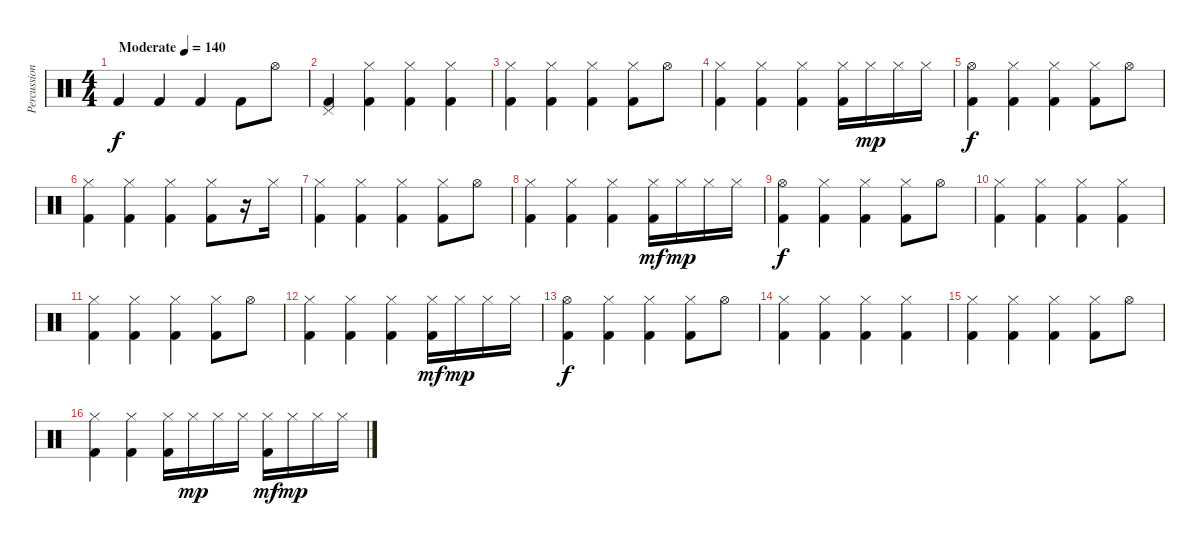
\track ("Percussions" "Percussion") {instrument percussion}
\staff {score}
\articulation defaults
\ts (4 4)
\tempo (140 "Moderate")
\clef neutral
\ks c "Kick (hit) 2".4{dy f} "Kick (hit) 2".4 "Kick (hit) 2".4 "Kick (hit) 2".8 "Hi-Hat (open)".8
|
("Pedal Hi-Hat (hit)" "Kick (hit) 2").4 ("Hi-Hat (closed)" "Kick (hit) 2").4 ("Hi-Hat (closed)" "Kick (hit) 2").4 ("Hi-Hat (closed)" "Kick (hit) 2").4 |
("Hi-Hat (closed)" "Kick (hit) 2").4 ("Hi-Hat (closed)" "Kick (hit) 2").4 ("Hi-Hat (closed)" "Kick (hit) 2").4 ("Hi-Hat (closed)" "Kick (hit) 2").8 "Hi-Hat (open)".8 |
("Hi-Hat (closed)" "Kick (hit) 2").4 ("Hi-Hat (closed)" "Kick (hit) 2").4 ("Hi-Hat (closed)" "Kick (hit) 2").4 ("Hi-Hat (closed)" "Kick (hit) 2").16 "Hi-Hat (closed)".16{dy mp} "Hi-Hat (closed)".16 "Hi-Hat (closed)".16 |
("Hi-Hat (open)" "Kick (hit) 2").4{dy f} ("Hi-Hat (closed)" "Kick (hit) 2").4 ("Hi-Hat (closed)" "Kick (hit) 2").4 ("Hi-Hat (closed)" "Kick (hit) 2").8 "Hi-Hat (open)".8 |
("Hi-Hat (closed)" "Kick (hit) 2").4 ("Hi-Hat (closed)" "Kick (hit) 2").4 ("Hi-Hat (closed)" "Kick (hit) 2").4 ("Hi-Hat (closed)" "Kick (hit) 2").8 r.16 "Hi-Hat (closed)".16 |
("Hi-Hat (closed)" "Kick (hit) 2").4 ("Hi-Hat (closed)" "Kick (hit) 2").4 ("Hi-Hat (closed)" "Kick (hit) 2").4 ("Hi-Hat (closed)" "Kick (hit) 2").8 "Hi-Hat (open)".8 |
("Hi-Hat (closed)" "Kick (hit) 2").4 ("Hi-Hat (closed)" "Kick (hit) 2").4 ("Hi-Hat (closed)" "Kick (hit) 2").4 ("Hi-Hat (closed)" "Kick (hit) 2").16{dy mf} "Hi-Hat (closed)".16{dy mp} "Hi-Hat (closed)".16 "Hi-Hat (closed)".16 |
("Hi-Hat (open)" "Kick (hit) 2").4{dy f} ("Hi-Hat (closed)" "Kick (hit) 2").4 ("Hi-Hat (closed)" "Kick (hit) 2").4 ("Hi-Hat (closed)" "Kick (hit) 2").8 "Hi-Hat (open)".8 |
("Hi-Hat (closed)" "Kick (hit) 2").4 ("Hi-Hat (closed)" "Kick (hit) 2").4 ("Hi-Hat (closed)" "Kick (hit) 2").4 ("Hi-Hat (closed)" "Kick (hit) 2").4 |
("Hi-Hat (closed)" "Kick (hit) 2").4 ("Hi-Hat (closed)" "Kick (hit) 2").4 ("Hi-Hat (closed)" "Kick (hit) 2").4 ("Hi-Hat (closed)" "Kick (hit) 2").8 "Hi-Hat (open)".8 |
("Hi-Hat (closed)" "Kick (hit) 2").4 ("Hi-Hat (closed)" "Kick (hit) 2").4 ("Hi-Hat (closed)" "Kick (hit) 2").4 ("Hi-Hat (closed)" "Kick (hit) 2").16{dy mf} "Hi-Hat (closed)".16{dy mp} "Hi-Hat (closed)".16 "Hi-Hat (closed)".16 |
("Hi-Hat (open)" "Kick (hit) 2").4{dy f} ("Hi-Hat (closed)" "Kick (hit) 2").4 ("Hi-Hat (closed)" "Kick (hit) 2").4 ("Hi-Hat (closed)" "Kick (hit) 2").8 "Hi-Hat (open)".8 |
("Hi-Hat (closed)" "Kick (hit) 2").4 ("Hi-Hat (closed)" "Kick (hit) 2").4 ("Hi-Hat (closed)" "Kick (hit) 2").4 ("Hi-Hat (closed)" "Kick (hit) 2").4 |
("Hi-Hat (closed)" "Kick (hit) 2").4 ("Hi-Hat (closed)" "Kick (hit) 2").4 ("Hi-Hat (closed)" "Kick (hit) 2").4 ("Hi-Hat (closed)" "Kick (hit) 2").8 "Hi-Hat (open)".8 |
("Hi-Hat (closed)" "Kick (hit) 2").4 ("Hi-Hat (closed)" "Kick (hit) 2").4 ("Hi-Hat (closed)" "Kick (hit) 2").16 "Hi-Hat (closed)".16{dy mp} "Hi-Hat (closed)".16 "Hi-Hat (closed)".16 ("Hi-Hat (closed)" "Kick (hit) 2").16{dy mf} "Hi-Hat (closed)".16{dy mp} "Hi-Hat (closed)".16 "Hi-Hat (closed)".16
